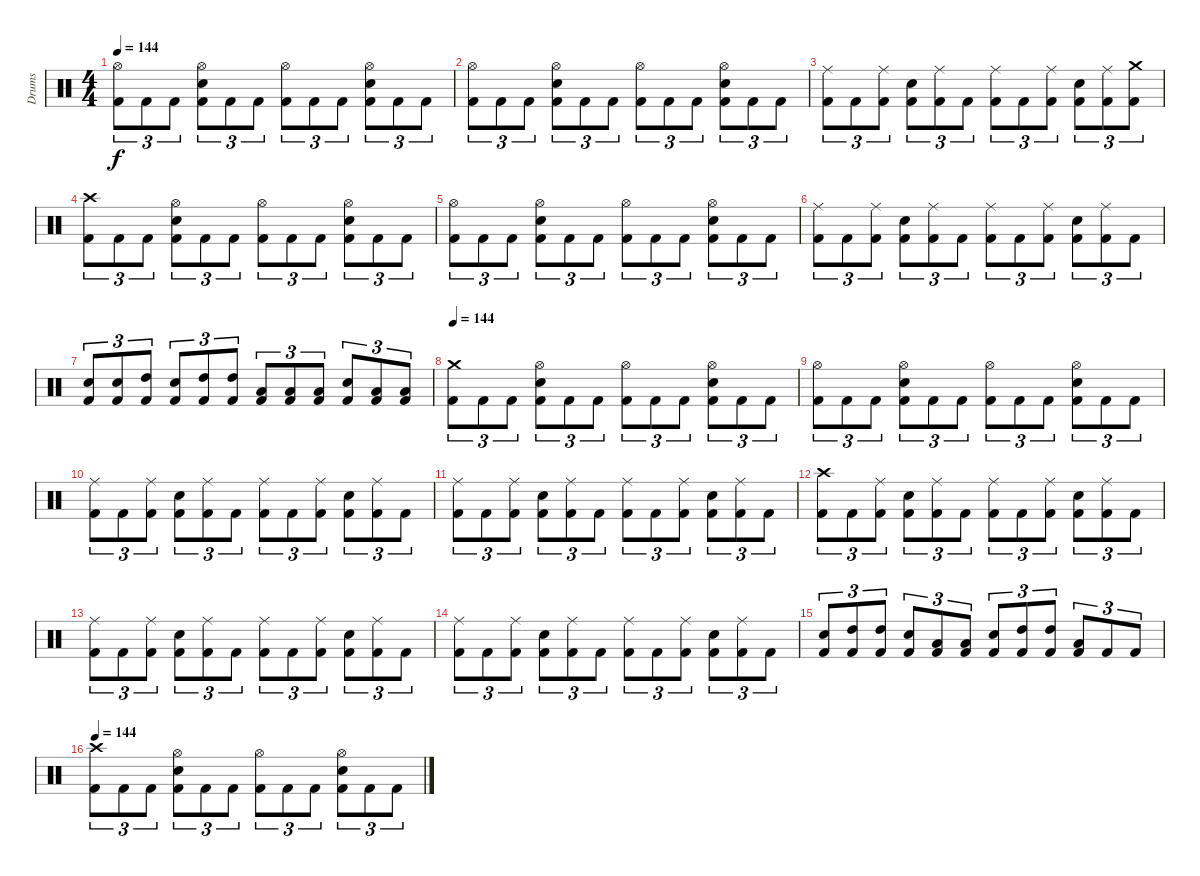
\track ("Drums" "Drums") {instrument percussion}
\staff {score}
\articulation defaults
\ts (4 4)
\tempo 144
\clef neutral
\ks c
("Hi-Hat (open)" "Kick (hit) 2").8{tu (3 2) dy f} "Kick (hit) 2".8{tu (3 2)} "Kick (hit) 2".8{tu (3 2)} ("Hi-Hat (open)" "Snare (hit) 2" "Kick (hit) 2").8{tu (3 2)} "Kick (hit) 2".8{tu (3 2)} "Kick (hit) 2".8{tu (3 2)} ("Hi-Hat (open)" "Kick (hit) 2").8{tu (3 2)} "Kick (hit) 2".8{tu (3 2)} "Kick (hit) 2".8{tu (3 2)} ("Hi-Hat (open)" "Snare (hit) 2" "Kick (hit) 2").8{tu (3 2)} "Kick (hit) 2".8{tu (3 2)} "Kick (hit) 2".8{tu (3 2)} |
("Hi-Hat (open)" "Kick (hit) 2").8{tu (3 2)} "Kick (hit) 2".8{tu (3 2)} "Kick (hit) 2".8{tu (3 2)} ("Hi-Hat (open)" "Snare (hit) 2" "Kick (hit) 2").8{tu (3 2)} "Kick (hit) 2".8{tu (3 2)} "Kick (hit) 2".8{tu (3 2)} ("Hi-Hat (open)" "Kick (hit) 2").8{tu (3 2)} "Kick (hit) 2".8{tu (3 2)} "Kick (hit) 2".8{tu (3 2)} ("Hi-Hat (open)" "Snare (hit) 2" "Kick (hit) 2").8{tu (3 2)} "Kick (hit) 2".8{tu (3 2)} "Kick (hit) 2".8{tu (3 2)} |
("Ride (middle)" "Kick (hit) 2").8{tu (3 2)} "Kick (hit) 2".8{tu (3 2)} ("Ride (middle)" "Kick (hit) 2").8{tu (3 2)} ("Snare (hit) 2" "Kick (hit) 2").8{tu (3 2)} ("Ride (middle)" "Kick (hit) 2").8{tu (3 2)} "Kick (hit) 2".8{tu (3 2)} ("Ride (middle)" "Kick (hit) 2").8{tu (3 2)} "Kick (hit) 2".8{tu (3 2)} ("Ride (middle)" "Kick (hit) 2").8{tu (3 2)} ("Snare (hit) 2" "Kick (hit) 2").8{tu (3 2)} ("Ride (middle)" "Kick (hit) 2").8{tu (3 2)} ("Crash medium (hit)" "Kick (hit) 2").8{tu (3 2)} |
("Crash high (hit)" "Kick (hit) 2").8{tu (3 2)} "Kick (hit) 2".8{tu (3 2)} "Kick (hit) 2".8{tu (3 2)} ("Hi-Hat (open)" "Snare (hit) 2" "Kick (hit) 2").8{tu (3 2)} "Kick (hit) 2".8{tu (3 2)} "Kick (hit) 2".8{tu (3 2)} ("Hi-Hat (open)" "Kick (hit) 2").8{tu (3 2)} "Kick (hit) 2".8{tu (3 2)} "Kick (hit) 2".8{tu (3 2)} ("Hi-Hat (open)" "Snare (hit) 2" "Kick (hit) 2").8{tu (3 2)} "Kick (hit) 2".8{tu (3 2)} "Kick (hit) 2".8{tu (3 2)} |
("Hi-Hat (open)" "Kick (hit) 2").8{tu (3 2)} "Kick (hit) 2".8{tu (3 2)} "Kick (hit) 2".8{tu (3 2)} ("Hi-Hat (open)" "Snare (hit) 2" "Kick (hit) 2").8{tu (3 2)} "Kick (hit) 2".8{tu (3 2)} "Kick (hit) 2".8{tu (3 2)} ("Hi-Hat (open)" "Kick (hit) 2").8{tu (3 2)} "Kick (hit) 2".8{tu (3 2)} "Kick (hit) 2".8{tu (3 2)} ("Hi-Hat (open)" "Snare (hit) 2" "Kick (hit) 2").8{tu (3 2)} "Kick (hit) 2".8{tu (3 2)} "Kick (hit) 2".8{tu (3 2)} |
("Ride (middle)" "Kick (hit) 2").8{tu (3 2)} "Kick (hit) 2".8{tu (3 2)} ("Ride (middle)" "Kick (hit) 2").8{tu (3 2)} ("Snare (hit) 2" "Kick (hit) 2").8{tu (3 2)} ("Ride (middle)" "Kick (hit) 2").8{tu (3 2)} "Kick (hit) 2".8{tu (3 2)} ("Ride (middle)" "Kick (hit) 2").8{tu (3 2)} "Kick (hit) 2".8{tu (3 2)} ("Ride (middle)" "Kick (hit) 2").8{tu (3 2)} ("Snare (hit) 2" "Kick (hit) 2").8{tu (3 2)} ("Ride (middle)" "Kick (hit) 2").8{tu (3 2)} "Kick (hit) 2".8{tu (3 2)} |
("Snare (hit) 2" "Kick (hit) 2").8{tu (3 2)} ("Snare (hit) 2" "Kick (hit) 2").8{tu (3 2)} ("High Tom (hit)" "Kick (hit) 2").8{tu (3 2)} ("Snare (hit) 2" "Kick (hit) 2").8{tu (3 2)} ("High Tom (hit)" "Kick (hit) 2").8{tu (3 2)} ("High Tom (hit)" "Kick (hit) 2").8{tu (3 2)} ("Low Tom (hit)" "Kick (hit) 2").8{tu (3 2)} ("Low Tom (hit)" "Kick (hit) 2").8{tu (3 2)} ("Low Tom (hit)" "Kick (hit) 2").8{tu (3 2)} ("Snare (hit) 2" "Kick (hit) 2").8{tu (3 2)} ("Low Tom (hit)" "Kick (hit) 2").8{tu (3 2)} ("Low Tom (hit)" "Kick (hit) 2").8{tu (3 2)} |
\tempo 144
("Crash medium (hit)" "Kick (hit) 2").8{tu (3 2)} "Kick (hit) 2".8{tu (3 2)} "Kick (hit) 2".8{tu (3 2)} ("Hi-Hat (open)" "Snare (hit) 2" "Kick (hit) 2").8{tu (3 2)} "Kick (hit) 2".8{tu (3 2)} "Kick (hit) 2".8{tu (3 2)} ("Hi-Hat (open)" "Kick (hit) 2").8{tu (3 2)} "Kick (hit) 2".8{tu (3 2)} "Kick (hit) 2".8{tu (3 2)} ("Hi-Hat (open)" "Snare (hit) 2" "Kick (hit) 2").8{tu (3 2)} "Kick (hit) 2".8{tu (3 2)} "Kick (hit) 2".8{tu (3 2)} |
("Hi-Hat (open)" "Kick (hit) 2").8{tu (3 2)} "Kick (hit) 2".8{tu (3 2)} "Kick (hit) 2".8{tu (3 2)} ("Hi-Hat (open)" "Snare (hit) 2" "Kick (hit) 2").8{tu (3 2)} "Kick (hit) 2".8{tu (3 2)} "Kick (hit) 2".8{tu (3 2)} ("Hi-Hat (open)" "Kick (hit) 2").8{tu (3 2)} "Kick (hit) 2".8{tu (3 2)} "Kick (hit) 2".8{tu (3 2)} ("Hi-Hat (open)" "Snare (hit) 2" "Kick (hit) 2").8{tu (3 2)} "Kick (hit) 2".8{tu (3 2)} "Kick (hit) 2".8{tu (3 2)} |
("Ride (middle)" "Kick (hit) 2").8{tu (3 2)} "Kick (hit) 2".8{tu (3 2)} ("Ride (middle)" "Kick (hit) 2").8{tu (3 2)} ("Snare (hit) 2" "Kick (hit) 2").8{tu (3 2)} ("Ride (middle)" "Kick (hit) 2").8{tu (3 2)} "Kick (hit) 2".8{tu (3 2)} ("Ride (middle)" "Kick (hit) 2").8{tu (3 2)} "Kick (hit) 2".8{tu (3 2)} ("Ride (middle)" "Kick (hit) 2").8{tu (3 2)} ("Snare (hit) 2" "Kick (hit) 2").8{tu (3 2)} ("Ride (middle)" "Kick (hit) 2").8{tu (3 2)} "Kick (hit) 2".8{tu (3 2)} |
("Ride (middle)" "Kick (hit) 2").8{tu (3 2)} "Kick (hit) 2".8{tu (3 2)} ("Ride (middle)" "Kick (hit) 2").8{tu (3 2)} ("Snare (hit) 2" "Kick (hit) 2").8{tu (3 2)} ("Ride (middle)" "Kick (hit) 2").8{tu (3 2)} "Kick (hit) 2".8{tu (3 2)} ("Ride (middle)" "Kick (hit) 2").8{tu (3 2)} "Kick (hit) 2".8{tu (3 2)} ("Ride (middle)" "Kick (hit) 2").8{tu (3 2)} ("Snare (hit) 2" "Kick (hit) 2").8{tu (3 2)} ("Ride (middle)" "Kick (hit) 2").8{tu (3 2)} "Kick (hit) 2".8{tu (3 2)} |
("Crash high (hit)" "Kick (hit) 2").8{tu (3 2)} "Kick (hit) 2".8{tu (3 2)} ("Ride (middle)" "Kick (hit) 2").8{tu (3 2)} ("Snare (hit) 2" "Kick (hit) 2").8{tu (3 2)} ("Ride (middle)" "Kick (hit) 2").8{tu (3 2)} "Kick (hit) 2".8{tu (3 2)} ("Ride (middle)" "Kick (hit) 2").8{tu (3 2)} "Kick (hit) 2".8{tu (3 2)} ("Ride (middle)" "Kick (hit) 2").8{tu (3 2)} ("Snare (hit) 2" "Kick (hit) 2").8{tu (3 2)} ("Ride (middle)" "Kick (hit) 2").8{tu (3 2)} "Kick (hit) 2".8{tu (3 2)} |
("Ride (middle)" "Kick (hit) 2").8{tu (3 2)} "Kick (hit) 2".8{tu (3 2)} ("Ride (middle)" "Kick (hit) 2").8{tu (3 2)} ("Snare (hit) 2" "Kick (hit) 2").8{tu (3 2)} ("Ride (middle)" "Kick (hit) 2").8{tu (3 2)} "Kick (hit) 2".8{tu (3 2)} ("Ride (middle)" "Kick (hit) 2").8{tu (3 2)} "Kick (hit) 2".8{tu (3 2)} ("Ride (middle)" "Kick (hit) 2").8{tu (3 2)} ("Snare (hit) 2" "Kick (hit) 2").8{tu (3 2)} ("Ride (middle)" "Kick (hit) 2").8{tu (3 2)} "Kick (hit) 2".8{tu (3 2)} |
("Ride (middle)" "Kick (hit) 2").8{tu (3 2)} "Kick (hit) 2".8{tu (3 2)} ("Ride (middle)" "Kick (hit) 2").8{tu (3 2)} ("Snare (hit) 2" "Kick (hit) 2").8{tu (3 2)} ("Ride (middle)" "Kick (hit) 2").8{tu (3 2)} "Kick (hit) 2".8{tu (3 2)} ("Ride (middle)" "Kick (hit) 2").8{tu (3 2)} "Kick (hit) 2".8{tu (3 2)} ("Ride (middle)" "Kick (hit) 2").8{tu (3 2)} ("Snare (hit) 2" "Kick (hit) 2").8{tu (3 2)} ("Ride (middle)" "Kick (hit) 2").8{tu (3 2)} "Kick (hit) 2".8{tu (3 2)} |
("Snare (hit) 2" "Kick (hit) 2").8{tu (3 2)} ("High Tom (hit)" "Kick (hit) 2").8{tu (3 2)} ("High Tom (hit)" "Kick (hit) 2").8{tu (3 2)} ("Snare (hit) 2" "Kick (hit) 2").8{tu (3 2)} ("Low Tom (hit)" "Kick (hit) 2").8{tu (3 2)} ("Low Tom (hit)" "Kick (hit) 2").8{tu (3 2)} ("Snare (hit) 2" "Kick (hit) 2").8{tu (3 2)} ("High Tom (hit)" "Kick (hit) 2").8{tu (3 2)} ("High Tom (hit)" "Kick (hit) 2").8{tu (3 2)} ("Low Tom (hit)" "Kick (hit) 2").8{tu (3 2)} "Kick (hit) 2".8{tu (3 2)} "Kick (hit) 2".8{tu (3 2)} |
\tempo 144
("Crash high (hit)" "Kick (hit) 2").8{tu (3 2)} "Kick (hit) 2".8{tu (3 2)} "Kick (hit) 2".8{tu (3 2)} ("Hi-Hat (open)" "Snare (hit) 2" "Kick (hit) 2").8{tu (3 2)} "Kick (hit) 2".8{tu (3 2)} "Kick (hit) 2".8{tu (3 2)} ("Hi-Hat (open)" "Kick (hit) 2").8{tu (3 2)} "Kick (hit) 2".8{tu (3 2)} "Kick (hit) 2".8{tu (3 2)} ("Hi-Hat (open)" "Snare (hit) 2" "Kick (hit) 2").8{tu (3 2)} "Kick (hit) 2".8{tu (3 2)} "Kick (hit) 2".8{tu (3 2)}
